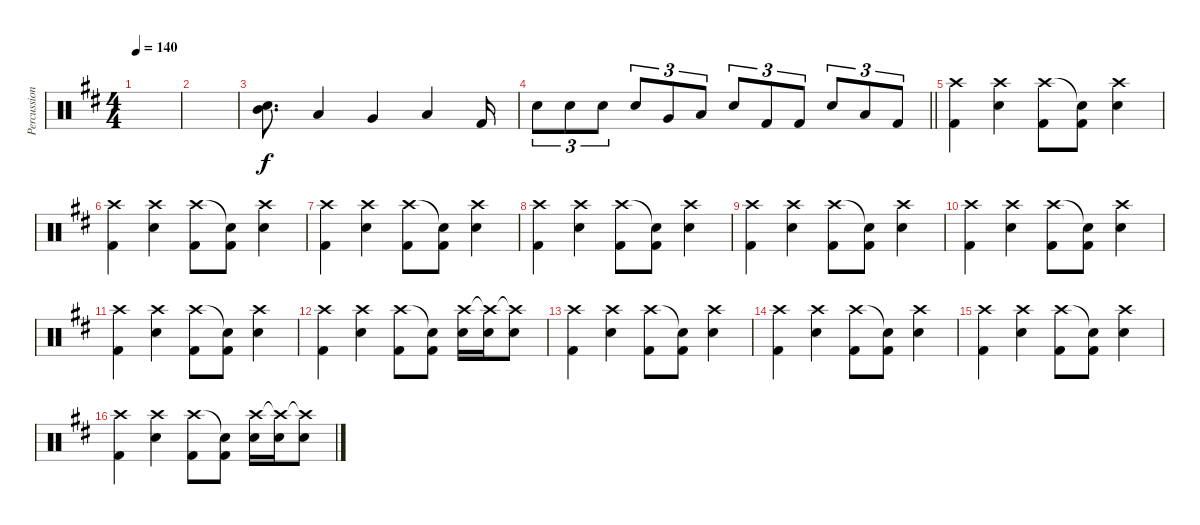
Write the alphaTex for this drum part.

\track ("Percussion" "Percussion") {instrument percussion}
\staff {score}
\articulation defaults
\ts (4 4)
\tempo 140
\clef neutral
\ks bminor
|
|
("Snare (hit) 2" "Mid Tom (hit)").8{d} "Low Tom (hit)".4 "Very Low Tom (hit)".4 "Low Floor Tom (hit)".4 "Kick (hit) 2".16 |
\barLineRight lightlight "Snare (hit) 2".8{tu (3 2)} "Snare (hit) 2".8{tu (3 2)} "Snare (hit) 2".8{tu (3 2)} "Snare (hit) 2".8{tu (3 2)} "Very Low Tom (hit)".8{tu (3 2)} "Low Floor Tom (hit)".8{tu (3 2)} "Snare (hit) 2".8{tu (3 2)} "Kick (hit) 2".8{tu (3 2)} "Kick (hit) 2".8{tu (3 2)} "Snare (hit) 2".8{tu (3 2)} "Low Floor Tom (hit)".8{tu (3 2)} "Kick (hit) 2".8{tu (3 2)}
|
("Crash high (hit)" "Kick (hit) 2").4 ("Crash high (hit)" "Snare (hit) 2").4 ("Crash high (hit)" "Kick (hit) 2").8 ("Snare (hit)"{t} "Kick (hit) 2").8 ("Crash high (hit)" "Snare (hit) 2").4 |
("Crash high (hit)" "Kick (hit) 2").4 ("Crash high (hit)" "Snare (hit) 2").4 ("Crash high (hit)" "Kick (hit) 2").8 ("Snare (hit)"{t} "Kick (hit) 2").8 ("Crash high (hit)" "Snare (hit) 2").4 |
("Crash high (hit)" "Kick (hit) 2").4 ("Crash high (hit)" "Snare (hit) 2").4 ("Crash high (hit)" "Kick (hit) 2").8 ("Snare (hit)"{t} "Kick (hit) 2").8 ("Crash high (hit)" "Snare (hit) 2").4 |
("Crash high (hit)" "Kick (hit) 2").4 ("Crash high (hit)" "Snare (hit) 2").4 ("Crash high (hit)" "Kick (hit) 2").8 ("Snare (hit)"{t} "Kick (hit) 2").8 ("Crash high (hit)" "Snare (hit) 2").4 |
("Crash high (hit)" "Kick (hit) 2").4 ("Crash high (hit)" "Snare (hit) 2").4 ("Crash high (hit)" "Kick (hit) 2").8 ("Snare (hit)"{t} "Kick (hit) 2").8 ("Crash high (hit)" "Snare (hit) 2").4 |
("Crash high (hit)" "Kick (hit) 2").4 ("Crash high (hit)" "Snare (hit) 2").4 ("Crash high (hit)" "Kick (hit) 2").8 ("Snare (hit)"{t} "Kick (hit) 2").8 ("Crash high (hit)" "Snare (hit) 2").4 |
("Crash high (hit)" "Kick (hit) 2").4 ("Crash high (hit)" "Snare (hit) 2").4 ("Crash high (hit)" "Kick (hit) 2").8 ("Snare (hit)"{t} "Kick (hit) 2").8 ("Crash high (hit)" "Snare (hit) 2").4 |
("Crash high (hit)" "Kick (hit) 2").4 ("Crash high (hit)" "Snare (hit) 2").4 ("Crash high (hit)" "Kick (hit) 2").8 ("Snare (hit)"{t} "Kick (hit) 2").8 ("Crash high (hit)" "Snare (hit) 2").16 ("Crash high (hit)"{t} "Snare (hit) 2").16 ("Crash high (hit)"{t} "Snare (hit) 2").8 |
("Crash high (hit)" "Kick (hit) 2").4 ("Crash high (hit)" "Snare (hit) 2").4 ("Crash high (hit)" "Kick (hit) 2").8 ("Snare (hit)"{t} "Kick (hit) 2").8 ("Crash high (hit)" "Snare (hit) 2").4 |
("Crash high (hit)" "Kick (hit) 2").4 ("Crash high (hit)" "Snare (hit) 2").4 ("Crash high (hit)" "Kick (hit) 2").8 ("Snare (hit)"{t} "Kick (hit) 2").8 ("Crash high (hit)" "Snare (hit) 2").4 |
("Crash high (hit)" "Kick (hit) 2").4 ("Crash high (hit)" "Snare (hit) 2").4 ("Crash high (hit)" "Kick (hit) 2").8 ("Snare (hit)"{t} "Kick (hit) 2").8 ("Crash high (hit)" "Snare (hit) 2").4 |
("Crash high (hit)" "Kick (hit) 2").4 ("Crash high (hit)" "Snare (hit) 2").4 ("Crash high (hit)" "Kick (hit) 2").8 ("Snare (hit)"{t} "Kick (hit) 2").8 ("Crash high (hit)" "Snare (hit) 2").16 ("Crash high (hit)"{t} "Snare (hit) 2").16 ("Crash high (hit)"{t} "Snare (hit) 2").8
